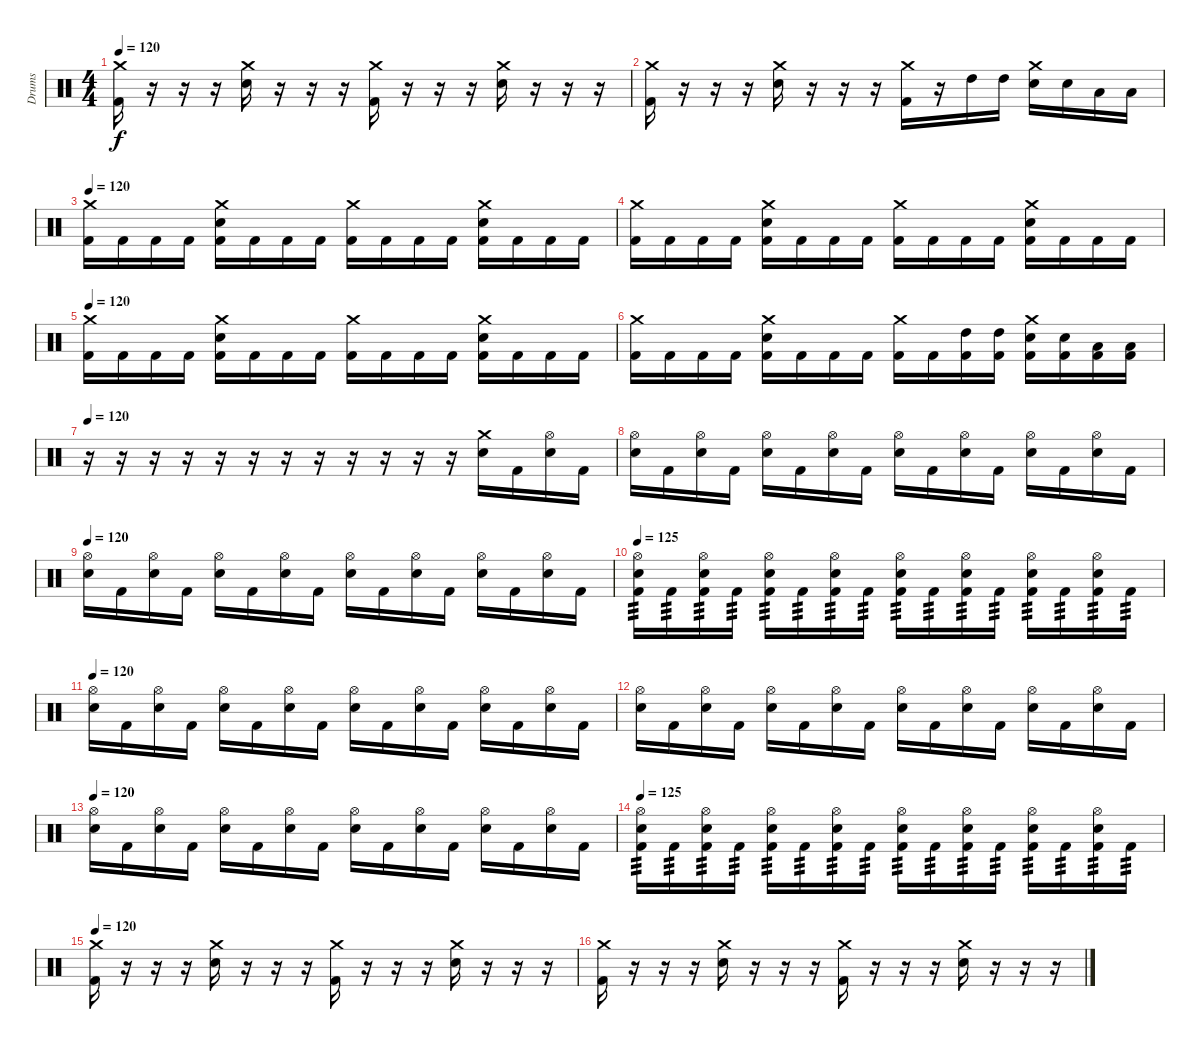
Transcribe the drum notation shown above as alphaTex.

\track ("Drums" "Drums") {instrument percussion}
\staff {score}
\articulation defaults
\ts (4 4)
\tempo 120
\clef neutral
\ks c
("Crash medium (hit)" "Kick (hit) 2").16{dy f} r.16 r.16 r.16 ("Crash medium (hit)" "Electric Snare (hit)").16 r.16 r.16 r.16 ("Crash medium (hit)" "Kick (hit) 2").16 r.16 r.16 r.16 ("Crash medium (hit)" "Electric Snare (hit)").16 r.16 r.16 r.16 |
("Crash medium (hit)" "Kick (hit) 2").16 r.16 r.16 r.16 ("Crash medium (hit)" "Electric Snare (hit)").16 r.16 r.16 r.16 ("Crash medium (hit)" "Kick (hit) 2").16 r.16 "High Tom (hit)".16 "High Tom (hit)".16 ("Crash medium (hit)" "Electric Snare (hit)").16 "Electric Snare (hit)".16 "Low Tom (hit)".16 "Low Tom (hit)".16 |
\tempo 120
("Crash medium (hit)" "Kick (hit) 2").16 "Kick (hit) 2".16 "Kick (hit) 2".16 "Kick (hit) 2".16 ("Crash medium (hit)" "Electric Snare (hit)" "Kick (hit) 2").16 "Kick (hit) 2".16 "Kick (hit) 2".16 "Kick (hit) 2".16 ("Crash medium (hit)" "Kick (hit) 2").16 "Kick (hit) 2".16 "Kick (hit) 2".16 "Kick (hit) 2".16 ("Crash medium (hit)" "Electric Snare (hit)" "Kick (hit) 2").16 "Kick (hit) 2".16 "Kick (hit) 2".16 "Kick (hit) 2".16 |
("Crash medium (hit)" "Kick (hit) 2").16 "Kick (hit) 2".16 "Kick (hit) 2".16 "Kick (hit) 2".16 ("Crash medium (hit)" "Electric Snare (hit)" "Kick (hit) 2").16 "Kick (hit) 2".16 "Kick (hit) 2".16 "Kick (hit) 2".16 ("Crash medium (hit)" "Kick (hit) 2").16 "Kick (hit) 2".16 "Kick (hit) 2".16 "Kick (hit) 2".16 ("Crash medium (hit)" "Electric Snare (hit)" "Kick (hit) 2").16 "Kick (hit) 2".16 "Kick (hit) 2".16 "Kick (hit) 2".16 |
\tempo 120
("Crash medium (hit)" "Kick (hit) 2").16 "Kick (hit) 2".16 "Kick (hit) 2".16 "Kick (hit) 2".16 ("Crash medium (hit)" "Electric Snare (hit)" "Kick (hit) 2").16 "Kick (hit) 2".16 "Kick (hit) 2".16 "Kick (hit) 2".16 ("Crash medium (hit)" "Kick (hit) 2").16 "Kick (hit) 2".16 "Kick (hit) 2".16 "Kick (hit) 2".16 ("Crash medium (hit)" "Electric Snare (hit)" "Kick (hit) 2").16 "Kick (hit) 2".16 "Kick (hit) 2".16 "Kick (hit) 2".16 |
("Crash medium (hit)" "Kick (hit) 2").16 "Kick (hit) 2".16 "Kick (hit) 2".16 "Kick (hit) 2".16 ("Crash medium (hit)" "Electric Snare (hit)" "Kick (hit) 2").16 "Kick (hit) 2".16 "Kick (hit) 2".16 "Kick (hit) 2".16 ("Crash medium (hit)" "Kick (hit) 2").16 "Kick (hit) 2".16 ("High Tom (hit)" "Kick (hit) 2").16 ("High Tom (hit)" "Kick (hit) 2").16 ("Crash medium (hit)" "Electric Snare (hit)" "Kick (hit) 2").16 ("Electric Snare (hit)" "Kick (hit) 2").16 ("Low Tom (hit)" "Kick (hit) 2").16 ("Low Tom (hit)" "Kick (hit) 2").16 |
\tempo 120
r.16 r.16 r.16 r.16 r.16 r.16 r.16 r.16 r.16 r.16 r.16 r.16 ("Crash medium (hit)" "Electric Snare (hit)").16 "Kick (hit) 2".16 ("Hi-Hat (open)" "Electric Snare (hit)").16 "Kick (hit) 2".16 |
("Hi-Hat (open)" "Electric Snare (hit)").16 "Kick (hit) 2".16 ("Hi-Hat (open)" "Electric Snare (hit)").16 "Kick (hit) 2".16 ("Hi-Hat (open)" "Electric Snare (hit)").16 "Kick (hit) 2".16 ("Hi-Hat (open)" "Electric Snare (hit)").16 "Kick (hit) 2".16 ("Hi-Hat (open)" "Electric Snare (hit)").16 "Kick (hit) 2".16 ("Hi-Hat (open)" "Electric Snare (hit)").16 "Kick (hit) 2".16 ("Hi-Hat (open)" "Electric Snare (hit)").16 "Kick (hit) 2".16 ("Hi-Hat (open)" "Electric Snare (hit)").16 "Kick (hit) 2".16 |
\tempo 120
("Hi-Hat (open)" "Electric Snare (hit)").16 "Kick (hit) 2".16 ("Hi-Hat (open)" "Electric Snare (hit)").16 "Kick (hit) 2".16 ("Hi-Hat (open)" "Electric Snare (hit)").16 "Kick (hit) 2".16 ("Hi-Hat (open)" "Electric Snare (hit)").16 "Kick (hit) 2".16 ("Hi-Hat (open)" "Electric Snare (hit)").16 "Kick (hit) 2".16 ("Hi-Hat (open)" "Electric Snare (hit)").16 "Kick (hit) 2".16 ("Hi-Hat (open)" "Electric Snare (hit)").16 "Kick (hit) 2".16 ("Hi-Hat (open)" "Electric Snare (hit)").16 "Kick (hit) 2".16 |
\tempo 125
("Hi-Hat (open)" "Electric Snare (hit)" "Kick (hit) 2").16{tp 3} "Kick (hit) 2".16{tp 3} ("Hi-Hat (open)" "Electric Snare (hit)" "Kick (hit) 2").16{tp 3} "Kick (hit) 2".16{tp 3} ("Hi-Hat (open)" "Electric Snare (hit)" "Kick (hit) 2").16{tp 3} "Kick (hit) 2".16{tp 3} ("Hi-Hat (open)" "Electric Snare (hit)" "Kick (hit) 2").16{tp 3} "Kick (hit) 2".16{tp 3} ("Hi-Hat (open)" "Electric Snare (hit)" "Kick (hit) 2").16{tp 3} "Kick (hit) 2".16{tp 3} ("Hi-Hat (open)" "Electric Snare (hit)" "Kick (hit) 2").16{tp 3} "Kick (hit) 2".16{tp 3} ("Hi-Hat (open)" "Electric Snare (hit)" "Kick (hit) 2").16{tp 3} "Kick (hit) 2".16{tp 3} ("Hi-Hat (open)" "Electric Snare (hit)" "Kick (hit) 2").16{tp 3} "Kick (hit) 2".16{tp 3} |
\tempo 120
("Hi-Hat (open)" "Electric Snare (hit)").16 "Kick (hit) 2".16 ("Hi-Hat (open)" "Electric Snare (hit)").16 "Kick (hit) 2".16 ("Hi-Hat (open)" "Electric Snare (hit)").16 "Kick (hit) 2".16 ("Hi-Hat (open)" "Electric Snare (hit)").16 "Kick (hit) 2".16 ("Hi-Hat (open)" "Electric Snare (hit)").16 "Kick (hit) 2".16 ("Hi-Hat (open)" "Electric Snare (hit)").16 "Kick (hit) 2".16 ("Hi-Hat (open)" "Electric Snare (hit)").16 "Kick (hit) 2".16 ("Hi-Hat (open)" "Electric Snare (hit)").16 "Kick (hit) 2".16 |
("Hi-Hat (open)" "Electric Snare (hit)").16 "Kick (hit) 2".16 ("Hi-Hat (open)" "Electric Snare (hit)").16 "Kick (hit) 2".16 ("Hi-Hat (open)" "Electric Snare (hit)").16 "Kick (hit) 2".16 ("Hi-Hat (open)" "Electric Snare (hit)").16 "Kick (hit) 2".16 ("Hi-Hat (open)" "Electric Snare (hit)").16 "Kick (hit) 2".16 ("Hi-Hat (open)" "Electric Snare (hit)").16 "Kick (hit) 2".16 ("Hi-Hat (open)" "Electric Snare (hit)").16 "Kick (hit) 2".16 ("Hi-Hat (open)" "Electric Snare (hit)").16 "Kick (hit) 2".16 |
\tempo 120
("Hi-Hat (open)" "Electric Snare (hit)").16 "Kick (hit) 2".16 ("Hi-Hat (open)" "Electric Snare (hit)").16 "Kick (hit) 2".16 ("Hi-Hat (open)" "Electric Snare (hit)").16 "Kick (hit) 2".16 ("Hi-Hat (open)" "Electric Snare (hit)").16 "Kick (hit) 2".16 ("Hi-Hat (open)" "Electric Snare (hit)").16 "Kick (hit) 2".16 ("Hi-Hat (open)" "Electric Snare (hit)").16 "Kick (hit) 2".16 ("Hi-Hat (open)" "Electric Snare (hit)").16 "Kick (hit) 2".16 ("Hi-Hat (open)" "Electric Snare (hit)").16 "Kick (hit) 2".16 |
\tempo 125
("Hi-Hat (open)" "Electric Snare (hit)" "Kick (hit) 2").16{tp 3} "Kick (hit) 2".16{tp 3} ("Hi-Hat (open)" "Electric Snare (hit)" "Kick (hit) 2").16{tp 3} "Kick (hit) 2".16{tp 3} ("Hi-Hat (open)" "Electric Snare (hit)" "Kick (hit) 2").16{tp 3} "Kick (hit) 2".16{tp 3} ("Hi-Hat (open)" "Electric Snare (hit)" "Kick (hit) 2").16{tp 3} "Kick (hit) 2".16{tp 3} ("Hi-Hat (open)" "Electric Snare (hit)" "Kick (hit) 2").16{tp 3} "Kick (hit) 2".16{tp 3} ("Hi-Hat (open)" "Electric Snare (hit)" "Kick (hit) 2").16{tp 3} "Kick (hit) 2".16{tp 3} ("Hi-Hat (open)" "Electric Snare (hit)" "Kick (hit) 2").16{tp 3} "Kick (hit) 2".16{tp 3} ("Hi-Hat (open)" "Electric Snare (hit)" "Kick (hit) 2").16{tp 3} "Kick (hit) 2".16{tp 3} |
\tempo 120
("Crash medium (hit)" "Kick (hit) 2").16 r.16 r.16 r.16 ("Crash medium (hit)" "Electric Snare (hit)").16 r.16 r.16 r.16 ("Crash medium (hit)" "Kick (hit) 2").16 r.16 r.16 r.16 ("Crash medium (hit)" "Electric Snare (hit)").16 r.16 r.16 r.16 |
("Crash medium (hit)" "Kick (hit) 2").16 r.16 r.16 r.16 ("Crash medium (hit)" "Electric Snare (hit)").16 r.16 r.16 r.16 ("Crash medium (hit)" "Kick (hit) 2").16 r.16 r.16 r.16 ("Crash medium (hit)" "Electric Snare (hit)").16 r.16 r.16 r.16
